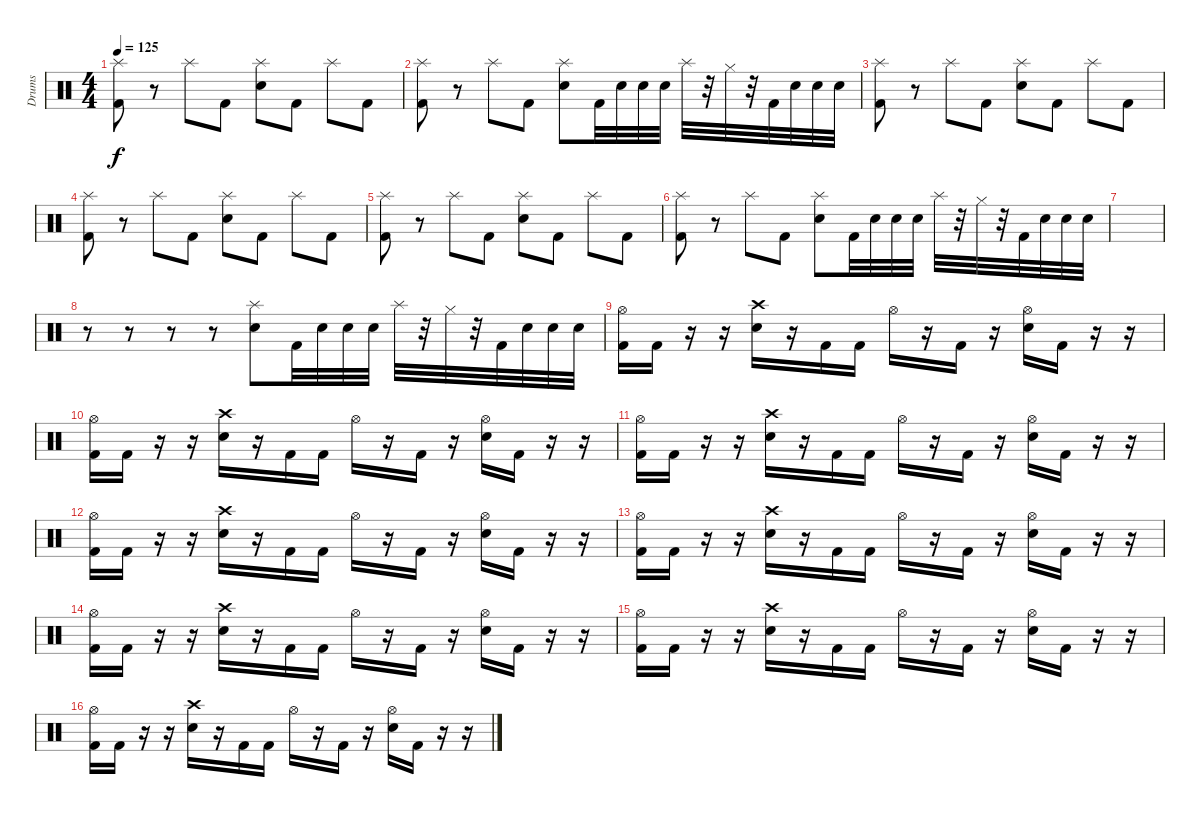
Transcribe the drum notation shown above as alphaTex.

\track ("Drums" "Drums") {instrument percussion}
\staff {score}
\articulation defaults
\ts (4 4)
\tempo 125
\clef neutral
\ks c
("Splash (hit)" "Kick (hit) 2").8{dy f} r.8 "Splash (hit)".8 "Kick (hit) 2".8 ("Splash (hit)" "Snare (hit) 2").8 "Kick (hit) 2".8 "Splash (hit)".8 "Kick (hit) 2".8 |
("Splash (hit)" "Kick (hit) 2").8 r.8 "Splash (hit)".8 "Kick (hit) 2".8 ("Splash (hit)" "Snare (hit) 2").8 "Kick (hit) 2".32 "Electric Snare (hit)".32 "Electric Snare (hit)".32 "Electric Snare (hit)".32 "Splash (hit)".32 r.32 "Hi-Hat (closed)".32 r.32 "Kick (hit) 2".32 "Electric Snare (hit)".32 "Electric Snare (hit)".32 "Electric Snare (hit)".32 |
("Splash (hit)" "Kick (hit) 2").8 r.8 "Splash (hit)".8 "Kick (hit) 2".8 ("Splash (hit)" "Snare (hit) 2").8 "Kick (hit) 2".8 "Splash (hit)".8 "Kick (hit) 2".8 |
("Splash (hit)" "Kick (hit) 2").8 r.8 "Splash (hit)".8 "Kick (hit) 2".8 ("Splash (hit)" "Snare (hit) 2").8 "Kick (hit) 2".8 "Splash (hit)".8 "Kick (hit) 2".8 |
("Splash (hit)" "Kick (hit) 2").8 r.8 "Splash (hit)".8 "Kick (hit) 2".8 ("Splash (hit)" "Snare (hit) 2").8 "Kick (hit) 2".8 "Splash (hit)".8 "Kick (hit) 2".8 |
("Splash (hit)" "Kick (hit) 2").8 r.8 "Splash (hit)".8 "Kick (hit) 2".8 ("Splash (hit)" "Snare (hit) 2").8 "Kick (hit) 2".32 "Electric Snare (hit)".32 "Electric Snare (hit)".32 "Electric Snare (hit)".32 "Splash (hit)".32 r.32 "Hi-Hat (closed)".32 r.32 "Kick (hit) 2".32 "Electric Snare (hit)".32 "Electric Snare (hit)".32 "Electric Snare (hit)".32 |
|
r.8 r.8 r.8 r.8 ("Splash (hit)" "Snare (hit) 2").8 "Kick (hit) 2".32 "Electric Snare (hit)".32 "Electric Snare (hit)".32 "Electric Snare (hit)".32 "Splash (hit)".32 r.32 "Hi-Hat (closed)".32 r.32 "Kick (hit) 2".32 "Electric Snare (hit)".32 "Electric Snare (hit)".32 "Electric Snare (hit)".32 |
("Hi-Hat (open)" "Kick (hit) 2").16 "Kick (hit) 2".16 r.16 r.16 ("Crash high (hit)" "Snare (hit) 2").16 r.16 "Kick (hit) 2".16 "Kick (hit) 2".16 "Hi-Hat (open)".16 r.16 "Kick (hit) 2".16 r.16 ("Hi-Hat (open)" "Snare (hit) 2").16 "Kick (hit) 2".16 r.16 r.16 |
("Hi-Hat (open)" "Kick (hit) 2").16 "Kick (hit) 2".16 r.16 r.16 ("Crash high (hit)" "Snare (hit) 2").16 r.16 "Kick (hit) 2".16 "Kick (hit) 2".16 "Hi-Hat (open)".16 r.16 "Kick (hit) 2".16 r.16 ("Hi-Hat (open)" "Snare (hit) 2").16 "Kick (hit) 2".16 r.16 r.16 |
("Hi-Hat (open)" "Kick (hit) 2").16 "Kick (hit) 2".16 r.16 r.16 ("Crash high (hit)" "Snare (hit) 2").16 r.16 "Kick (hit) 2".16 "Kick (hit) 2".16 "Hi-Hat (open)".16 r.16 "Kick (hit) 2".16 r.16 ("Hi-Hat (open)" "Snare (hit) 2").16 "Kick (hit) 2".16 r.16 r.16 |
("Hi-Hat (open)" "Kick (hit) 2").16 "Kick (hit) 2".16 r.16 r.16 ("Crash high (hit)" "Snare (hit) 2").16 r.16 "Kick (hit) 2".16 "Kick (hit) 2".16 "Hi-Hat (open)".16 r.16 "Kick (hit) 2".16 r.16 ("Hi-Hat (open)" "Snare (hit) 2").16 "Kick (hit) 2".16 r.16 r.16 |
("Hi-Hat (open)" "Kick (hit) 2").16 "Kick (hit) 2".16 r.16 r.16 ("Crash high (hit)" "Snare (hit) 2").16 r.16 "Kick (hit) 2".16 "Kick (hit) 2".16 "Hi-Hat (open)".16 r.16 "Kick (hit) 2".16 r.16 ("Hi-Hat (open)" "Snare (hit) 2").16 "Kick (hit) 2".16 r.16 r.16 |
("Hi-Hat (open)" "Kick (hit) 2").16 "Kick (hit) 2".16 r.16 r.16 ("Crash high (hit)" "Snare (hit) 2").16 r.16 "Kick (hit) 2".16 "Kick (hit) 2".16 "Hi-Hat (open)".16 r.16 "Kick (hit) 2".16 r.16 ("Hi-Hat (open)" "Snare (hit) 2").16 "Kick (hit) 2".16 r.16 r.16 |
("Hi-Hat (open)" "Kick (hit) 2").16 "Kick (hit) 2".16 r.16 r.16 ("Crash high (hit)" "Snare (hit) 2").16 r.16 "Kick (hit) 2".16 "Kick (hit) 2".16 "Hi-Hat (open)".16 r.16 "Kick (hit) 2".16 r.16 ("Hi-Hat (open)" "Snare (hit) 2").16 "Kick (hit) 2".16 r.16 r.16 |
("Hi-Hat (open)" "Kick (hit) 2").16 "Kick (hit) 2".16 r.16 r.16 ("Crash high (hit)" "Snare (hit) 2").16 r.16 "Kick (hit) 2".16 "Kick (hit) 2".16 "Hi-Hat (open)".16 r.16 "Kick (hit) 2".16 r.16 ("Hi-Hat (open)" "Snare (hit) 2").16 "Kick (hit) 2".16 r.16 r.16
